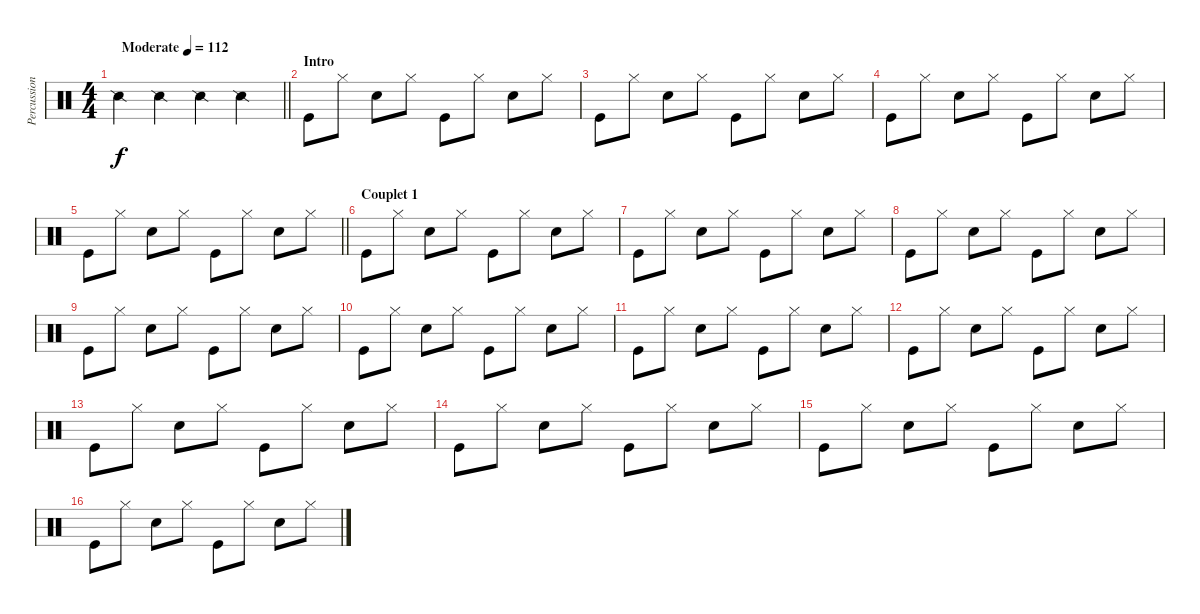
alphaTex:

\track ("Percussions" "Percussion") {instrument percussion}
\staff {score}
\articulation defaults
\ts (4 4)
\tempo (112 "Moderate")
\clef neutral
\barLineRight lightlight
\ks c "Snare (side stick) 2".4{dy f} "Snare (side stick) 2".4 "Snare (side stick) 2".4 "Snare (side stick) 2".4
|
\section ("" "Intro")
"Kick (hit)".8 "Hi-Hat (closed)".8 "Snare (hit) 2".8 "Hi-Hat (closed)".8 "Kick (hit)".8 "Hi-Hat (closed)".8 "Snare (hit) 2".8 "Hi-Hat (closed)".8 |
"Kick (hit)".8 "Hi-Hat (closed)".8 "Snare (hit) 2".8 "Hi-Hat (closed)".8 "Kick (hit)".8 "Hi-Hat (closed)".8 "Snare (hit) 2".8 "Hi-Hat (closed)".8 |
"Kick (hit)".8 "Hi-Hat (closed)".8 "Snare (hit) 2".8 "Hi-Hat (closed)".8 "Kick (hit)".8 "Hi-Hat (closed)".8 "Snare (hit) 2".8 "Hi-Hat (closed)".8 |
\barLineRight lightlight "Kick (hit)".8 "Hi-Hat (closed)".8 "Snare (hit) 2".8 "Hi-Hat (closed)".8 "Kick (hit)".8 "Hi-Hat (closed)".8 "Snare (hit) 2".8 "Hi-Hat (closed)".8
|
\section ("" "Couplet 1")
"Kick (hit)".8 "Hi-Hat (closed)".8 "Snare (hit) 2".8 "Hi-Hat (closed)".8 "Kick (hit)".8 "Hi-Hat (closed)".8 "Snare (hit) 2".8 "Hi-Hat (closed)".8 |
"Kick (hit)".8 "Hi-Hat (closed)".8 "Snare (hit) 2".8 "Hi-Hat (closed)".8 "Kick (hit)".8 "Hi-Hat (closed)".8 "Snare (hit) 2".8 "Hi-Hat (closed)".8 |
"Kick (hit)".8 "Hi-Hat (closed)".8 "Snare (hit) 2".8 "Hi-Hat (closed)".8 "Kick (hit)".8 "Hi-Hat (closed)".8 "Snare (hit) 2".8 "Hi-Hat (closed)".8 |
"Kick (hit)".8 "Hi-Hat (closed)".8 "Snare (hit) 2".8 "Hi-Hat (closed)".8 "Kick (hit)".8 "Hi-Hat (closed)".8 "Snare (hit) 2".8 "Hi-Hat (closed)".8 |
"Kick (hit)".8 "Hi-Hat (closed)".8 "Snare (hit) 2".8 "Hi-Hat (closed)".8 "Kick (hit)".8 "Hi-Hat (closed)".8 "Snare (hit) 2".8 "Hi-Hat (closed)".8 |
"Kick (hit)".8 "Hi-Hat (closed)".8 "Snare (hit) 2".8 "Hi-Hat (closed)".8 "Kick (hit)".8 "Hi-Hat (closed)".8 "Snare (hit) 2".8 "Hi-Hat (closed)".8 |
"Kick (hit)".8 "Hi-Hat (closed)".8 "Snare (hit) 2".8 "Hi-Hat (closed)".8 "Kick (hit)".8 "Hi-Hat (closed)".8 "Snare (hit) 2".8 "Hi-Hat (closed)".8 |
"Kick (hit)".8 "Hi-Hat (closed)".8 "Snare (hit) 2".8 "Hi-Hat (closed)".8 "Kick (hit)".8 "Hi-Hat (closed)".8 "Snare (hit) 2".8 "Hi-Hat (closed)".8 |
"Kick (hit)".8 "Hi-Hat (closed)".8 "Snare (hit) 2".8 "Hi-Hat (closed)".8 "Kick (hit)".8 "Hi-Hat (closed)".8 "Snare (hit) 2".8 "Hi-Hat (closed)".8 |
"Kick (hit)".8 "Hi-Hat (closed)".8 "Snare (hit) 2".8 "Hi-Hat (closed)".8 "Kick (hit)".8 "Hi-Hat (closed)".8 "Snare (hit) 2".8 "Hi-Hat (closed)".8 |
"Kick (hit)".8 "Hi-Hat (closed)".8 "Snare (hit) 2".8 "Hi-Hat (closed)".8 "Kick (hit)".8 "Hi-Hat (closed)".8 "Snare (hit) 2".8 "Hi-Hat (closed)".8
